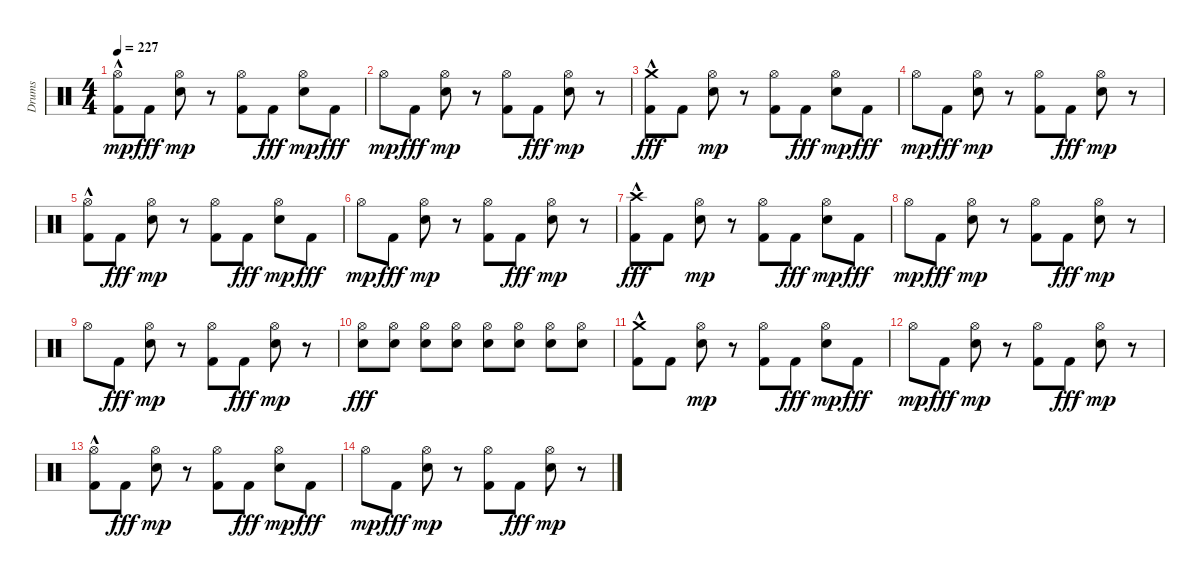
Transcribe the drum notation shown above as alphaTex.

\track ("Drums" "Drums") {instrument percussion}
\staff {score}
\articulation defaults
\ts (4 4)
\tempo 227
\clef neutral
\ks c
("Kick (hit) 2" "Hi-Hat (open)"{hac}).8{dy mp} "Kick (hit) 2".8{dy fff} ("Snare (hit) 2" "Hi-Hat (open)").8{dy mp} r.8 ("Kick (hit) 2" "Hi-Hat (open)").8 "Kick (hit) 2".8{dy fff} ("Snare (hit) 2" "Hi-Hat (open)").8{dy mp} "Kick (hit) 2".8{dy fff} |
"Hi-Hat (open)".8{dy mp} "Kick (hit) 2".8{dy fff} ("Snare (hit) 2" "Hi-Hat (open)").8{dy mp} r.8 ("Kick (hit) 2" "Hi-Hat (open)").8 "Kick (hit) 2".8{dy fff} ("Snare (hit) 2" "Hi-Hat (open)").8{dy mp} r.8 |
("Kick (hit) 2" "Crash medium (hit)"{hac}).8{dy fff} "Kick (hit) 2".8 ("Snare (hit) 2" "Hi-Hat (open)").8{dy mp} r.8 ("Kick (hit) 2" "Hi-Hat (open)").8 "Kick (hit) 2".8{dy fff} ("Snare (hit) 2" "Hi-Hat (open)").8{dy mp} "Kick (hit) 2".8{dy fff} |
"Hi-Hat (open)".8{dy mp} "Kick (hit) 2".8{dy fff} ("Snare (hit) 2" "Hi-Hat (open)").8{dy mp} r.8 ("Kick (hit) 2" "Hi-Hat (open)").8 "Kick (hit) 2".8{dy fff} ("Snare (hit) 2" "Hi-Hat (open)").8{dy mp} r.8 |
("Kick (hit) 2" "Hi-Hat (open)"{hac}).8 "Kick (hit) 2".8{dy fff} ("Snare (hit) 2" "Hi-Hat (open)").8{dy mp} r.8 ("Kick (hit) 2" "Hi-Hat (open)").8 "Kick (hit) 2".8{dy fff} ("Snare (hit) 2" "Hi-Hat (open)").8{dy mp} "Kick (hit) 2".8{dy fff} |
"Hi-Hat (open)".8{dy mp} "Kick (hit) 2".8{dy fff} ("Snare (hit) 2" "Hi-Hat (open)").8{dy mp} r.8 ("Kick (hit) 2" "Hi-Hat (open)").8 "Kick (hit) 2".8{dy fff} ("Snare (hit) 2" "Hi-Hat (open)").8{dy mp} r.8 |
("Kick (hit) 2" "Crash high (hit)"{hac}).8{dy fff} "Kick (hit) 2".8 ("Snare (hit) 2" "Hi-Hat (open)").8{dy mp} r.8 ("Kick (hit) 2" "Hi-Hat (open)").8 "Kick (hit) 2".8{dy fff} ("Snare (hit) 2" "Hi-Hat (open)").8{dy mp} "Kick (hit) 2".8{dy fff} |
"Hi-Hat (open)".8{dy mp} "Kick (hit) 2".8{dy fff} ("Snare (hit) 2" "Hi-Hat (open)").8{dy mp} r.8 ("Kick (hit) 2" "Hi-Hat (open)").8 "Kick (hit) 2".8{dy fff} ("Snare (hit) 2" "Hi-Hat (open)").8{dy mp} r.8 |
"Hi-Hat (open)".8 "Kick (hit) 2".8{dy fff} ("Snare (hit) 2" "Hi-Hat (open)").8{dy mp} r.8 ("Kick (hit) 2" "Hi-Hat (open)").8 "Kick (hit) 2".8{dy fff} ("Snare (hit) 2" "Hi-Hat (open)").8{dy mp} r.8 |
("Snare (hit) 2" "Hi-Hat (open)").8{dy fff} ("Snare (hit) 2" "Hi-Hat (open)").8 ("Snare (hit) 2" "Hi-Hat (open)").8 ("Snare (hit) 2" "Hi-Hat (open)").8 ("Snare (hit) 2" "Hi-Hat (open)").8 ("Snare (hit) 2" "Hi-Hat (open)").8 ("Snare (hit) 2" "Hi-Hat (open)").8 ("Snare (hit) 2" "Hi-Hat (open)").8 |
("Kick (hit) 2" "Crash medium (hit)"{hac}).8 "Kick (hit) 2".8 ("Snare (hit) 2" "Hi-Hat (open)").8{dy mp} r.8 ("Kick (hit) 2" "Hi-Hat (open)").8 "Kick (hit) 2".8{dy fff} ("Snare (hit) 2" "Hi-Hat (open)").8{dy mp} "Kick (hit) 2".8{dy fff} |
"Hi-Hat (open)".8{dy mp} "Kick (hit) 2".8{dy fff} ("Snare (hit) 2" "Hi-Hat (open)").8{dy mp} r.8 ("Kick (hit) 2" "Hi-Hat (open)").8 "Kick (hit) 2".8{dy fff} ("Snare (hit) 2" "Hi-Hat (open)").8{dy mp} r.8 |
("Kick (hit) 2" "Hi-Hat (open)"{hac}).8 "Kick (hit) 2".8{dy fff} ("Snare (hit) 2" "Hi-Hat (open)").8{dy mp} r.8 ("Kick (hit) 2" "Hi-Hat (open)").8 "Kick (hit) 2".8{dy fff} ("Snare (hit) 2" "Hi-Hat (open)").8{dy mp} "Kick (hit) 2".8{dy fff} |
"Hi-Hat (open)".8{dy mp} "Kick (hit) 2".8{dy fff} ("Snare (hit) 2" "Hi-Hat (open)").8{dy mp} r.8 ("Kick (hit) 2" "Hi-Hat (open)").8 "Kick (hit) 2".8{dy fff} ("Snare (hit) 2" "Hi-Hat (open)").8{dy mp} r.8
